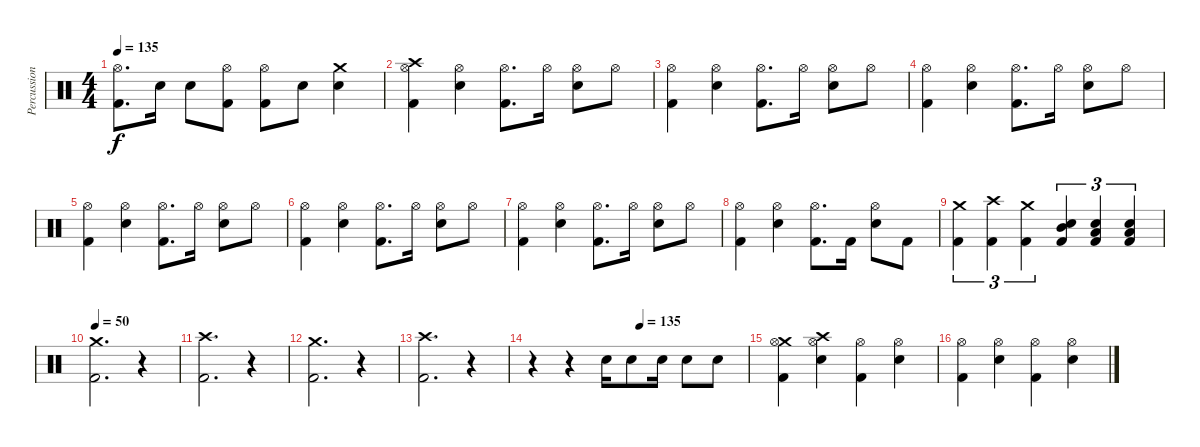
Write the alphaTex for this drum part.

\track ("Percussions" "Percussion") {instrument percussion}
\staff {score}
\articulation defaults
\ts (4 4)
\tempo 135
\clef neutral
\ks c
("Hi-Hat (open)" "Kick (hit) 2").8{d dy f} "Snare (hit) 2".16 "Snare (hit) 2".8 ("Hi-Hat (open)" "Kick (hit) 2").8 ("Hi-Hat (open)" "Kick (hit) 2").8 "Snare (hit) 2".8 ("Crash medium (hit)" "Snare (hit) 2").4 |
("Crash high (hit)" "Hi-Hat (open)" "Kick (hit) 2").4 ("Hi-Hat (open)" "Snare (hit) 2").4 ("Hi-Hat (open)" "Kick (hit) 2").8{d} "Hi-Hat (open)".16 ("Hi-Hat (open)" "Snare (hit) 2").8 "Hi-Hat (open)".8 |
("Hi-Hat (open)" "Kick (hit) 2").4 ("Hi-Hat (open)" "Snare (hit) 2").4 ("Hi-Hat (open)" "Kick (hit) 2").8{d} "Hi-Hat (open)".16 ("Hi-Hat (open)" "Snare (hit) 2").8 "Hi-Hat (open)".8 |
("Hi-Hat (open)" "Kick (hit) 2").4 ("Hi-Hat (open)" "Snare (hit) 2").4 ("Hi-Hat (open)" "Kick (hit) 2").8{d} "Hi-Hat (open)".16 ("Hi-Hat (open)" "Snare (hit) 2").8 "Hi-Hat (open)".8 |
("Hi-Hat (open)" "Kick (hit) 2").4 ("Hi-Hat (open)" "Snare (hit) 2").4 ("Hi-Hat (open)" "Kick (hit) 2").8{d} "Hi-Hat (open)".16 ("Hi-Hat (open)" "Snare (hit) 2").8 "Hi-Hat (open)".8 |
("Hi-Hat (open)" "Kick (hit) 2").4 ("Hi-Hat (open)" "Snare (hit) 2").4 ("Hi-Hat (open)" "Kick (hit) 2").8{d} "Hi-Hat (open)".16 ("Hi-Hat (open)" "Snare (hit) 2").8 "Hi-Hat (open)".8 |
("Hi-Hat (open)" "Kick (hit) 2").4 ("Hi-Hat (open)" "Snare (hit) 2").4 ("Hi-Hat (open)" "Kick (hit) 2").8{d} "Hi-Hat (open)".16 ("Hi-Hat (open)" "Snare (hit) 2").8 "Hi-Hat (open)".8 |
("Hi-Hat (open)" "Kick (hit) 2").4 ("Hi-Hat (open)" "Snare (hit) 2").4 ("Hi-Hat (open)" "Kick (hit) 2").8{d} "Kick (hit) 2".16 ("Hi-Hat (open)" "Snare (hit) 2").8 "Kick (hit) 2".8 |
("Crash medium (hit)" "Kick (hit) 2").4{tu (3 2)} ("Crash high (hit)" "Kick (hit) 2").4{tu (3 2)} ("Crash medium (hit)" "Kick (hit) 2").4{tu (3 2)} ("Mid Tom (hit)" "Snare (hit) 2" "Kick (hit) 2").4{tu (3 2)} ("Low Tom (hit)" "Snare (hit) 2" "Kick (hit) 2").4{tu (3 2)} ("Low Floor Tom (hit)" "Snare (hit) 2" "Kick (hit) 2").4{tu (3 2)} |
\tempo 50
("Crash medium (hit)" "Kick (hit) 2").2{d} r.4 |
("Crash high (hit)" "Kick (hit) 2").2{d} r.4 |
("Crash medium (hit)" "Kick (hit) 2").2{d} r.4 |
("Crash high (hit)" "Kick (hit) 2").2{d} r.4 |
\tempo (135 0.5)
r.4 r.4 "Snare (hit) 2".16 "Snare (hit) 2".8 "Snare (hit) 2".16 "Snare (hit) 2".8 "Snare (hit) 2".8 |
("Crash medium (hit)" "Hi-Hat (open)" "Kick (hit) 2").4 ("Crash high (hit)" "Hi-Hat (open)" "Snare (hit) 2").4 ("Hi-Hat (open)" "Kick (hit) 2").4 ("Hi-Hat (open)" "Snare (hit) 2").4 |
("Hi-Hat (open)" "Kick (hit) 2").4 ("Hi-Hat (open)" "Snare (hit) 2").4 ("Hi-Hat (open)" "Kick (hit) 2").4 ("Hi-Hat (open)" "Snare (hit) 2").4
